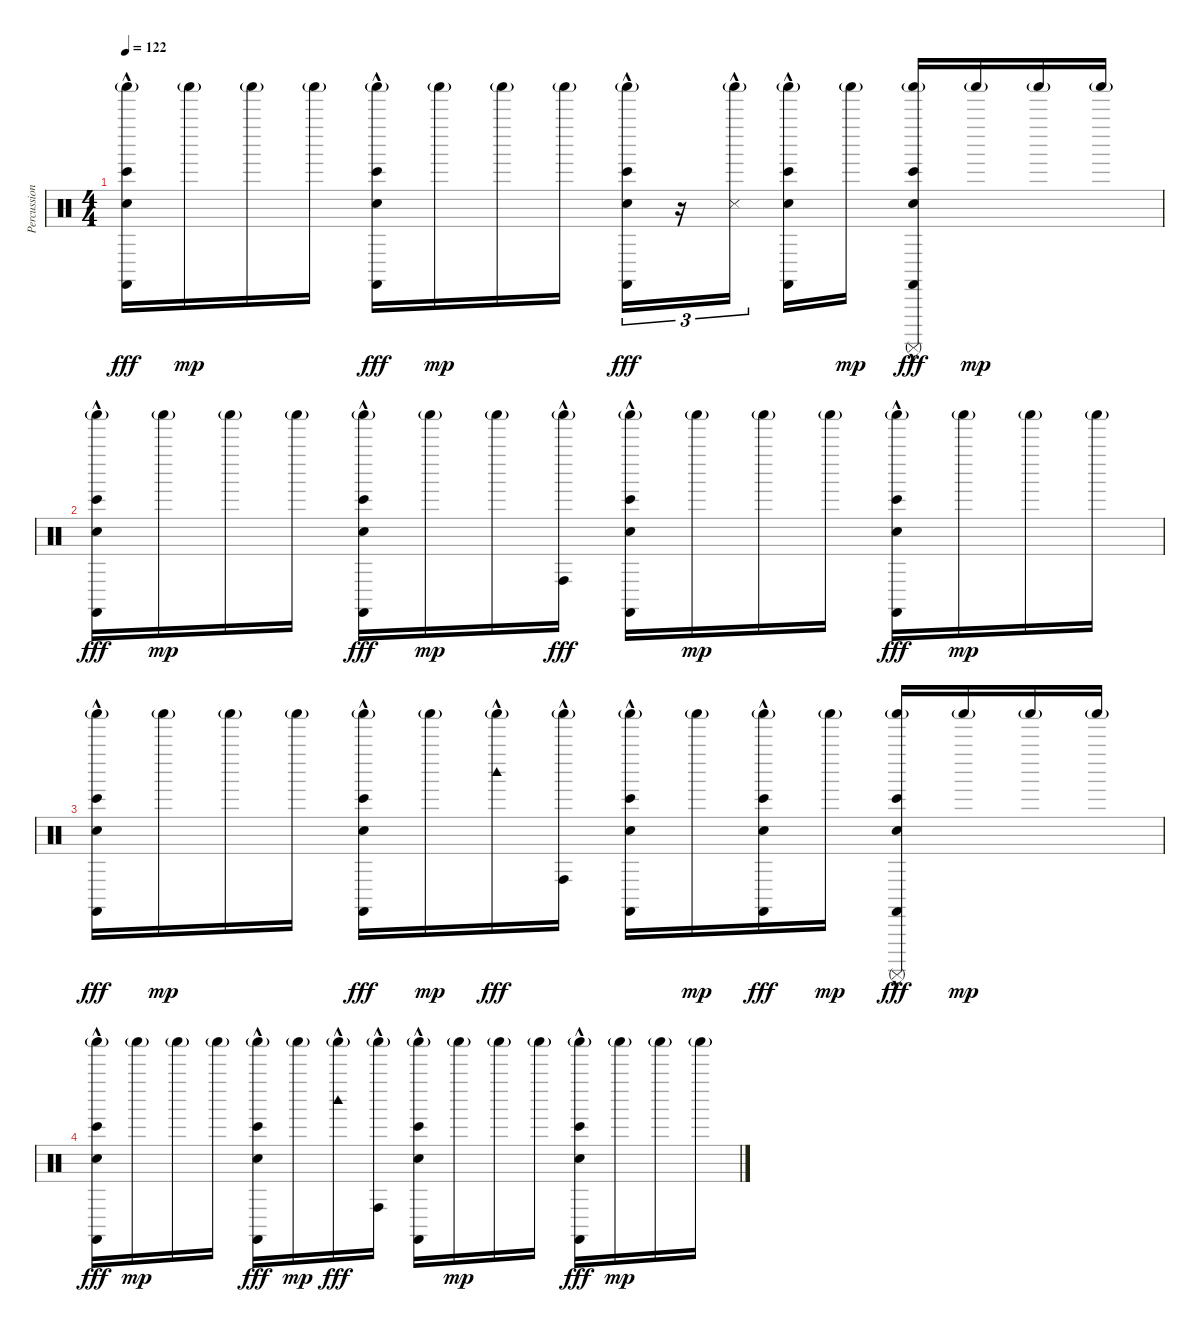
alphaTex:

\track ("Percussion" "Percussion") {instrument percussion}
\staff {score}
\articulation defaults
\ts (4 4)
\tempo 122
\clef neutral
\ks c
("Bongo High (hit)"{hac} "Castanets (hit)"{hac} "Shaker (hit)"{g} "Hand Clap (hit)"{hac}).16{dy fff} "Shaker (hit)"{g}.16{dy mp} "Shaker (hit)"{g}.16 "Shaker (hit)"{g}.16 ("Bongo High (hit)"{hac} "Castanets (hit)"{hac} "Shaker (hit)"{g} "Hand Clap (hit)"{hac}).16{dy fff} "Shaker (hit)"{g}.16{dy mp} "Shaker (hit)"{g}.16 "Shaker (hit)"{g}.16 ("Bongo High (hit)"{hac} "Castanets (hit)"{hac} "Shaker (hit)"{g} "Hand Clap (hit)"{hac}).16{tu (3 2) dy fff} r.16{tu (3 2)} ("Shaker (hit)"{g} "Snare (side stick) 3"{hac}).16{tu (3 2) beam splitsecondary} ("Bongo High (hit)"{hac} "Castanets (hit)"{hac} "Shaker (hit)"{g} "Hand Clap (hit)"{hac}).16 "Shaker (hit)"{g}.16{dy mp} ("Bongo High (hit)"{hac} "Castanets (hit)"{hac} "Shaker (hit)"{g} "Hand Clap (hit)"{hac} "Surdo (mute)"{hac}).16{dy fff} "Shaker (hit)"{g}.16{dy mp} "Shaker (hit)"{g}.16 "Shaker (hit)"{g}.16 |
("Bongo High (hit)"{hac} "Castanets (hit)"{hac} "Shaker (hit)"{g} "Hand Clap (hit)"{hac}).16{dy fff} "Shaker (hit)"{g}.16{dy mp} "Shaker (hit)"{g}.16 "Shaker (hit)"{g}.16 ("Bongo High (hit)"{hac} "Castanets (hit)"{hac} "Shaker (hit)"{g} "Hand Clap (hit)"{hac}).16{dy fff} "Shaker (hit)"{g}.16{dy mp} "Shaker (hit)"{g}.16 ("Shaker (hit)"{g} "Conga high (hit)"{hac}).16{dy fff} ("Bongo High (hit)"{hac} "Castanets (hit)"{hac} "Shaker (hit)"{g} "Hand Clap (hit)"{hac}).16 "Shaker (hit)"{g}.16{dy mp} "Shaker (hit)"{g}.16 "Shaker (hit)"{g}.16 ("Bongo High (hit)"{hac} "Castanets (hit)"{hac} "Shaker (hit)"{g} "Hand Clap (hit)"{hac}).16{dy fff} "Shaker (hit)"{g}.16{dy mp} "Shaker (hit)"{g}.16 "Shaker (hit)"{g}.16 |
("Bongo High (hit)"{hac} "Castanets (hit)"{hac} "Shaker (hit)"{g} "Hand Clap (hit)"{hac}).16{dy fff} "Shaker (hit)"{g}.16{dy mp} "Shaker (hit)"{g}.16 "Shaker (hit)"{g}.16 ("Bongo High (hit)"{hac} "Castanets (hit)"{hac} "Shaker (hit)"{g} "Hand Clap (hit)"{hac}).16{dy fff} "Shaker (hit)"{g}.16{dy mp} ("Shaker (hit)"{g} "Woodblock high (hit)"{hac}).16{dy fff} ("Shaker (hit)"{g} "Conga high (hit)"{hac}).16 ("Bongo High (hit)"{hac} "Castanets (hit)"{hac} "Shaker (hit)"{g} "Hand Clap (hit)"{hac}).16 "Shaker (hit)"{g}.16{dy mp} ("Bongo High (hit)"{hac} "Castanets (hit)" "Shaker (hit)"{g} "Hand Clap (hit)"{hac}).16{dy fff} "Shaker (hit)"{g}.16{dy mp} ("Bongo High (hit)"{hac} "Castanets (hit)"{hac} "Shaker (hit)"{g} "Hand Clap (hit)"{hac} "Surdo (mute)"{hac}).16{dy fff} "Shaker (hit)"{g}.16{dy mp} "Shaker (hit)"{g}.16 "Shaker (hit)"{g}.16 |
("Bongo High (hit)"{hac} "Castanets (hit)"{hac} "Shaker (hit)"{g} "Hand Clap (hit)"{hac}).16{dy fff} "Shaker (hit)"{g}.16{dy mp} "Shaker (hit)"{g}.16 "Shaker (hit)"{g}.16 ("Bongo High (hit)"{hac} "Castanets (hit)"{hac} "Shaker (hit)"{g} "Hand Clap (hit)"{hac}).16{dy fff} "Shaker (hit)"{g}.16{dy mp} ("Shaker (hit)"{g} "Woodblock high (hit)"{hac}).16{dy fff} ("Shaker (hit)"{g} "Conga high (hit)"{hac}).16 ("Bongo High (hit)"{hac} "Castanets (hit)"{hac} "Shaker (hit)"{g} "Hand Clap (hit)"{hac}).16 "Shaker (hit)"{g}.16{dy mp} "Shaker (hit)"{g}.16 "Shaker (hit)"{g}.16 ("Bongo High (hit)"{hac} "Castanets (hit)"{hac} "Shaker (hit)"{g} "Hand Clap (hit)"{hac}).16{dy fff} "Shaker (hit)"{g}.16{dy mp} "Shaker (hit)"{g}.16 "Shaker (hit)"{g}.16
